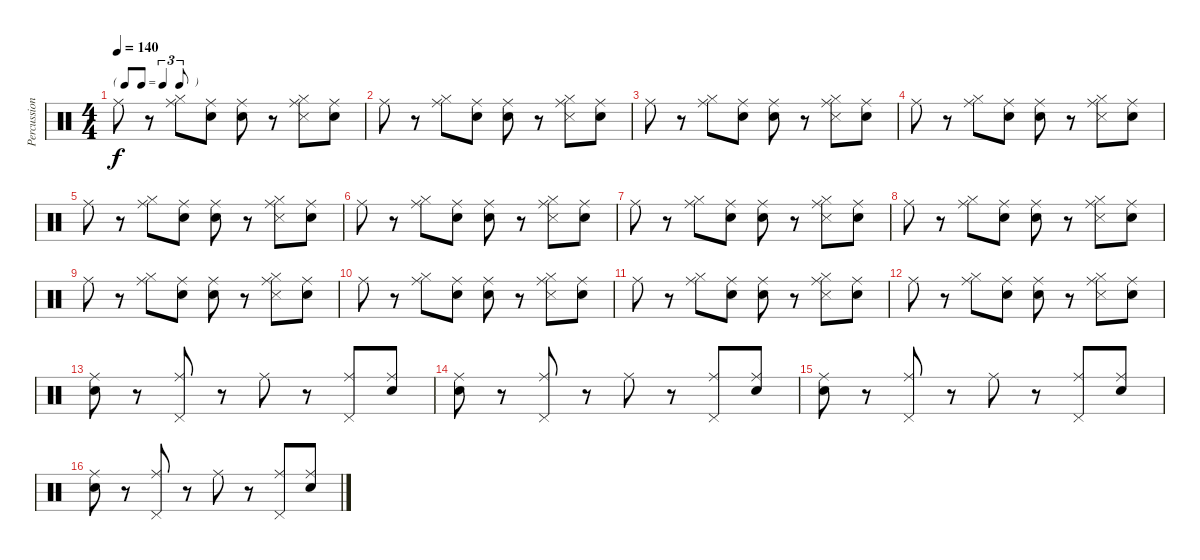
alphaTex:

\track ("Percussions" "Percussion") {instrument percussion}
\staff {score}
\articulation defaults
\ts (4 4)
\tf triplet8th
\tempo 140
\clef neutral
\ks c "Ride (middle)".8{dy f}
r.8 ("Hi-Hat (closed)" "Ride (middle)").8 ("Snare (hit)" "Ride (middle)").8 ("Snare (hit)" "Ride (middle)").8 r.8 ("Hi-Hat (closed)" "Snare (side stick) 3" "Ride (middle)").8 ("Snare (hit)" "Ride (middle)").8 |
"Ride (middle)".8 r.8 ("Hi-Hat (closed)" "Ride (middle)").8 ("Snare (hit)" "Ride (middle)").8 ("Snare (hit)" "Ride (middle)").8 r.8 ("Hi-Hat (closed)" "Snare (side stick) 3" "Ride (middle)").8 ("Snare (hit)" "Ride (middle)").8 |
"Ride (middle)".8 r.8 ("Hi-Hat (closed)" "Ride (middle)").8 ("Snare (hit)" "Ride (middle)").8 ("Snare (hit)" "Ride (middle)").8 r.8 ("Hi-Hat (closed)" "Snare (side stick) 3" "Ride (middle)").8 ("Snare (hit)" "Ride (middle)").8 |
"Ride (middle)".8 r.8 ("Hi-Hat (closed)" "Ride (middle)").8 ("Snare (hit)" "Ride (middle)").8 ("Snare (hit)" "Ride (middle)").8 r.8 ("Hi-Hat (closed)" "Snare (side stick) 3" "Ride (middle)").8 ("Snare (hit)" "Ride (middle)").8 |
"Ride (middle)".8 r.8 ("Hi-Hat (closed)" "Ride (middle)").8 ("Snare (hit)" "Ride (middle)").8 ("Snare (hit)" "Ride (middle)").8 r.8 ("Hi-Hat (closed)" "Snare (side stick) 3" "Ride (middle)").8 ("Snare (hit)" "Ride (middle)").8 |
"Ride (middle)".8 r.8 ("Hi-Hat (closed)" "Ride (middle)").8 ("Snare (hit)" "Ride (middle)").8 ("Snare (hit)" "Ride (middle)").8 r.8 ("Hi-Hat (closed)" "Snare (side stick) 3" "Ride (middle)").8 ("Snare (hit)" "Ride (middle)").8 |
"Ride (middle)".8 r.8 ("Hi-Hat (closed)" "Ride (middle)").8 ("Snare (hit)" "Ride (middle)").8 ("Snare (hit)" "Ride (middle)").8 r.8 ("Hi-Hat (closed)" "Snare (side stick) 3" "Ride (middle)").8 ("Snare (hit)" "Ride (middle)").8 |
"Ride (middle)".8 r.8 ("Hi-Hat (closed)" "Ride (middle)").8 ("Snare (hit)" "Ride (middle)").8 ("Snare (hit)" "Ride (middle)").8 r.8 ("Hi-Hat (closed)" "Snare (side stick) 3" "Ride (middle)").8 ("Snare (hit)" "Ride (middle)").8 |
"Ride (middle)".8 r.8 ("Hi-Hat (closed)" "Ride (middle)").8 ("Snare (hit)" "Ride (middle)").8 ("Snare (hit)" "Ride (middle)").8 r.8 ("Hi-Hat (closed)" "Snare (side stick) 3" "Ride (middle)").8 ("Snare (hit)" "Ride (middle)").8 |
"Ride (middle)".8 r.8 ("Hi-Hat (closed)" "Ride (middle)").8 ("Snare (hit)" "Ride (middle)").8 ("Snare (hit)" "Ride (middle)").8 r.8 ("Hi-Hat (closed)" "Snare (side stick) 3" "Ride (middle)").8 ("Snare (hit)" "Ride (middle)").8 |
"Ride (middle)".8 r.8 ("Hi-Hat (closed)" "Ride (middle)").8 ("Snare (hit)" "Ride (middle)").8 ("Snare (hit)" "Ride (middle)").8 r.8 ("Hi-Hat (closed)" "Snare (side stick) 3" "Ride (middle)").8 ("Snare (hit)" "Ride (middle)").8 |
"Ride (middle)".8 r.8 ("Hi-Hat (closed)" "Ride (middle)").8 ("Snare (hit)" "Ride (middle)").8 ("Snare (hit)" "Ride (middle)").8 r.8 ("Hi-Hat (closed)" "Snare (side stick) 3" "Ride (middle)").8 ("Snare (hit)" "Ride (middle)").8 |
("Snare (hit)" "Ride (middle)").8 r.8 ("Pedal Hi-Hat (hit)" "Ride (middle)").8 r.8 "Ride (middle)".8 r.8 ("Pedal Hi-Hat (hit)" "Ride (middle)").8 ("Snare (hit)" "Ride (middle)").8 |
("Snare (hit)" "Ride (middle)").8 r.8 ("Pedal Hi-Hat (hit)" "Ride (middle)").8 r.8 "Ride (middle)".8 r.8 ("Pedal Hi-Hat (hit)" "Ride (middle)").8 ("Snare (hit)" "Ride (middle)").8 |
("Snare (hit)" "Ride (middle)").8 r.8 ("Pedal Hi-Hat (hit)" "Ride (middle)").8 r.8 "Ride (middle)".8 r.8 ("Pedal Hi-Hat (hit)" "Ride (middle)").8 ("Snare (hit)" "Ride (middle)").8 |
("Snare (hit)" "Ride (middle)").8 r.8 ("Pedal Hi-Hat (hit)" "Ride (middle)").8 r.8 "Ride (middle)".8 r.8 ("Pedal Hi-Hat (hit)" "Ride (middle)").8 ("Snare (hit)" "Ride (middle)").8
